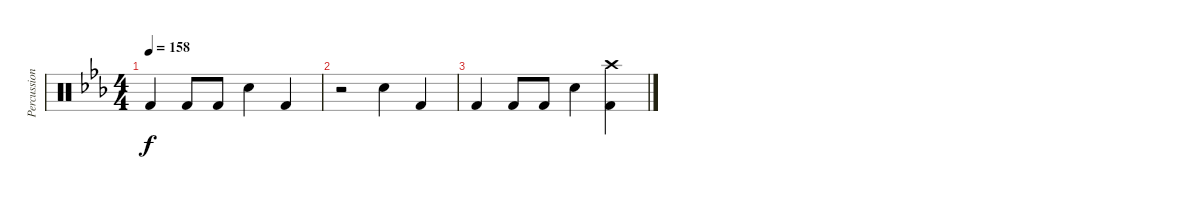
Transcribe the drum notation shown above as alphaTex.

\track ("Percussion" "Percussion") {instrument percussion}
\staff {score}
\articulation defaults
\ts (4 4)
\tempo 158
\clef neutral
\ks eb "Kick (hit) 2".4{dy f} "Kick (hit) 2".8 "Kick (hit) 2".8 "Snare (hit) 2".4 "Kick (hit) 2".4
|
r.2 "Snare (hit) 2".4 "Kick (hit) 2".4 |
"Kick (hit) 2".4 "Kick (hit) 2".8 "Kick (hit) 2".8 "Snare (hit) 2".4 ("Kick (hit) 2" "Crash high (hit)").4
